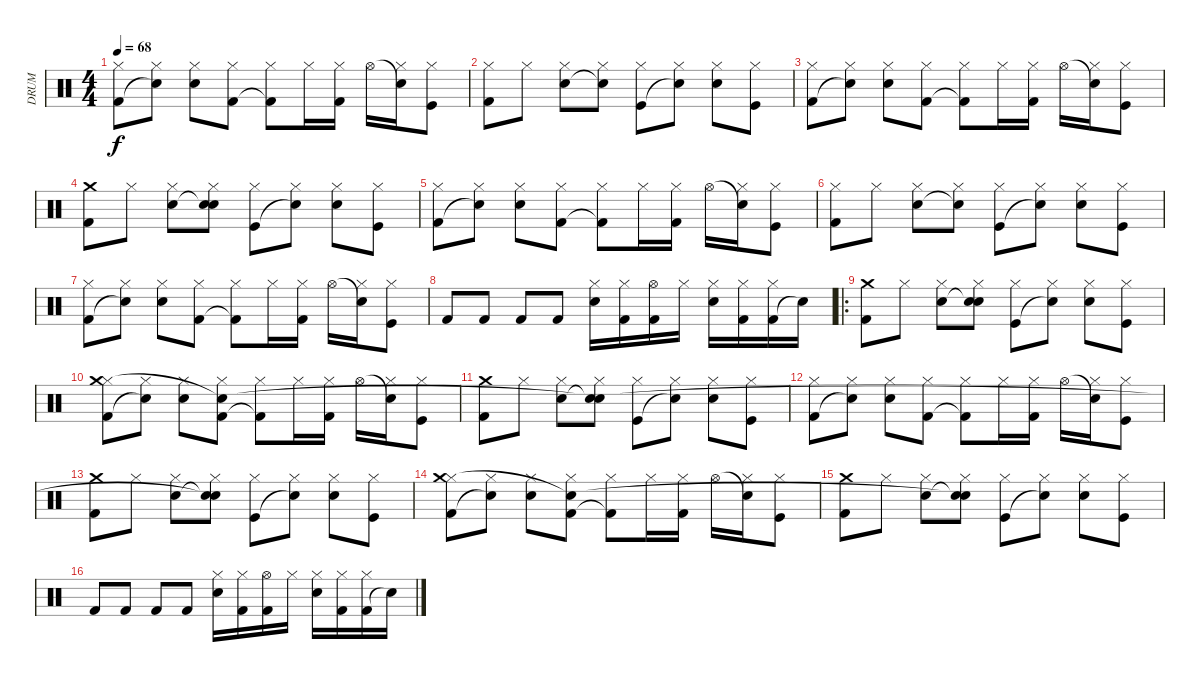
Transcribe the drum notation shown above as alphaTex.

\track ("DRUM" "DRUM") {instrument percussion}
\staff {score}
\articulation defaults
\ts (4 4)
\tempo 68
\clef neutral
\ks c
("Kick (hit) 2" "Hi-Hat (closed)").8{dy f} ("Snare (hit)"{t} "Hi-Hat (closed)").8 ("Snare (hit) 2" "Hi-Hat (closed)").8 ("Kick (hit) 2" "Hi-Hat (closed)").8 ("Kick (hit) 2"{t} "Hi-Hat (closed)").8 "Hi-Hat (closed)".16 ("Kick (hit) 2" "Hi-Hat (closed)").16 "Hi-Hat (open)".16 ("Snare (hit)"{t} "Hi-Hat (closed)").16 ("Kick (hit)" "Hi-Hat (closed)").8 |
("Kick (hit) 2" "Hi-Hat (closed)").8 "Hi-Hat (closed)".8 ("Snare (hit) 2" "Hi-Hat (closed)").8 ("Snare (hit)"{t} "Hi-Hat (closed)").8 ("Kick (hit)" "Hi-Hat (closed)").8 ("Snare (hit)"{t} "Hi-Hat (closed)").8 ("Snare (hit) 2" "Hi-Hat (closed)").8 ("Kick (hit)" "Hi-Hat (closed)").8 |
("Kick (hit) 2" "Hi-Hat (closed)").8 ("Snare (hit)"{t} "Hi-Hat (closed)").8 ("Snare (hit) 2" "Hi-Hat (closed)").8 ("Kick (hit) 2" "Hi-Hat (closed)").8 ("Kick (hit) 2"{t} "Hi-Hat (closed)").8 "Hi-Hat (closed)".16 ("Kick (hit) 2" "Hi-Hat (closed)").16 "Hi-Hat (open)".16 ("Snare (hit)"{t} "Hi-Hat (closed)").16 ("Kick (hit)" "Hi-Hat (closed)").8 |
("Kick (hit) 2" "Crash medium (hit)").8 "Hi-Hat (closed)".8 ("Snare (hit) 2" "Hi-Hat (closed)").8 ("Snare (hit)"{t} "Hi-Hat (closed)" "Snare (hit)").8 ("Kick (hit)" "Hi-Hat (closed)").8 ("Snare (hit)"{t} "Hi-Hat (closed)").8 ("Snare (hit) 2" "Hi-Hat (closed)").8 ("Kick (hit)" "Hi-Hat (closed)").8 |
("Kick (hit) 2" "Hi-Hat (closed)").8 ("Snare (hit)"{t} "Hi-Hat (closed)").8 ("Snare (hit) 2" "Hi-Hat (closed)").8 ("Kick (hit) 2" "Hi-Hat (closed)").8 ("Kick (hit) 2"{t} "Hi-Hat (closed)").8 "Hi-Hat (closed)".16 ("Kick (hit) 2" "Hi-Hat (closed)").16 "Hi-Hat (open)".16 ("Snare (hit)"{t} "Hi-Hat (closed)").16 ("Kick (hit)" "Hi-Hat (closed)").8 |
("Kick (hit) 2" "Hi-Hat (closed)").8 "Hi-Hat (closed)".8 ("Snare (hit) 2" "Hi-Hat (closed)").8 ("Snare (hit)"{t} "Hi-Hat (closed)").8 ("Kick (hit)" "Hi-Hat (closed)").8 ("Snare (hit)"{t} "Hi-Hat (closed)").8 ("Snare (hit) 2" "Hi-Hat (closed)").8 ("Kick (hit)" "Hi-Hat (closed)").8 |
("Kick (hit) 2" "Hi-Hat (closed)").8 ("Snare (hit)"{t} "Hi-Hat (closed)").8 ("Snare (hit) 2" "Hi-Hat (closed)").8 ("Kick (hit) 2" "Hi-Hat (closed)").8 ("Kick (hit) 2"{t} "Hi-Hat (closed)").8 "Hi-Hat (closed)".16 ("Kick (hit) 2" "Hi-Hat (closed)").16 "Hi-Hat (open)".16 ("Snare (hit)"{t} "Hi-Hat (closed)").16 ("Kick (hit)" "Hi-Hat (closed)").8 |
"Kick (hit) 2".8 "Kick (hit) 2".8 "Kick (hit) 2".8 "Kick (hit) 2".8 ("Snare (hit) 2" "Hi-Hat (closed)").16 ("Kick (hit) 2" "Hi-Hat (closed)").16 ("Kick (hit) 2" "Hi-Hat (open)").16 "Hi-Hat (closed)".16 ("Snare (hit) 2" "Hi-Hat (closed)").16 ("Kick (hit) 2" "Hi-Hat (closed)").16 ("Kick (hit) 2" "Hi-Hat (closed)").16 "Snare (hit)"{t}.16 |
\ro
("Kick (hit) 2" "Crash medium (hit)").8 "Hi-Hat (closed)".8 ("Snare (hit) 2" "Hi-Hat (closed)").8 ("Snare (hit)"{t} "Hi-Hat (closed)" "Snare (hit)").8 ("Kick (hit)" "Hi-Hat (closed)").8 ("Snare (hit)"{t} "Hi-Hat (closed)").8 ("Snare (hit) 2" "Hi-Hat (closed)").8 ("Kick (hit)" "Hi-Hat (closed)").8 |
("Kick (hit) 2" "Hi-Hat (closed)" "Crash medium (hit)").8 ("Snare (hit)"{t} "Hi-Hat (closed)").8 ("Snare (hit) 2" "Hi-Hat (closed)").8 ("Kick (hit) 2" "Hi-Hat (closed)" "Snare (hit)"{t}).8 ("Kick (hit) 2"{t} "Hi-Hat (closed)").8 "Hi-Hat (closed)".16 ("Kick (hit) 2" "Hi-Hat (closed)").16 "Hi-Hat (open)".16 ("Snare (hit)"{t} "Hi-Hat (closed)").16 ("Kick (hit)" "Hi-Hat (closed)").8 |
("Kick (hit) 2" "Crash medium (hit)").8 "Hi-Hat (closed)".8 ("Snare (hit) 2" "Hi-Hat (closed)").8 ("Snare (hit)"{t} "Hi-Hat (closed)" "Snare (hit)"{t}).8 ("Kick (hit)" "Hi-Hat (closed)").8 ("Snare (hit)"{t} "Hi-Hat (closed)").8 ("Snare (hit) 2" "Hi-Hat (closed)").8 ("Kick (hit)" "Hi-Hat (closed)").8 |
("Kick (hit) 2" "Hi-Hat (closed)").8 ("Snare (hit)"{t} "Hi-Hat (closed)").8 ("Snare (hit) 2" "Hi-Hat (closed)").8 ("Kick (hit) 2" "Hi-Hat (closed)").8 ("Kick (hit) 2"{t} "Hi-Hat (closed)").8 "Hi-Hat (closed)".16 ("Kick (hit) 2" "Hi-Hat (closed)").16 "Hi-Hat (open)".16 ("Snare (hit)"{t} "Hi-Hat (closed)").16 ("Kick (hit)" "Hi-Hat (closed)").8 |
("Kick (hit) 2" "Crash medium (hit)").8 "Hi-Hat (closed)".8 ("Snare (hit) 2" "Hi-Hat (closed)").8 ("Snare (hit)"{t} "Hi-Hat (closed)" "Snare (hit)"{t}).8 ("Kick (hit)" "Hi-Hat (closed)").8 ("Snare (hit)"{t} "Hi-Hat (closed)").8 ("Snare (hit) 2" "Hi-Hat (closed)").8 ("Kick (hit)" "Hi-Hat (closed)").8 |
("Kick (hit) 2" "Hi-Hat (closed)" "Crash medium (hit)").8 ("Snare (hit)"{t} "Hi-Hat (closed)").8 ("Snare (hit) 2" "Hi-Hat (closed)").8 ("Kick (hit) 2" "Hi-Hat (closed)" "Snare (hit)"{t}).8 ("Kick (hit) 2"{t} "Hi-Hat (closed)").8 "Hi-Hat (closed)".16 ("Kick (hit) 2" "Hi-Hat (closed)").16 "Hi-Hat (open)".16 ("Snare (hit)"{t} "Hi-Hat (closed)").16 ("Kick (hit)" "Hi-Hat (closed)").8 |
("Kick (hit) 2" "Crash medium (hit)").8 "Hi-Hat (closed)".8 ("Snare (hit) 2" "Hi-Hat (closed)").8 ("Snare (hit)"{t} "Hi-Hat (closed)" "Snare (hit)"{t}).8 ("Kick (hit)" "Hi-Hat (closed)").8 ("Snare (hit)"{t} "Hi-Hat (closed)").8 ("Snare (hit) 2" "Hi-Hat (closed)").8 ("Kick (hit)" "Hi-Hat (closed)").8 |
"Kick (hit) 2".8 "Kick (hit) 2".8 "Kick (hit) 2".8 "Kick (hit) 2".8 ("Snare (hit) 2" "Hi-Hat (closed)").16 ("Kick (hit) 2" "Hi-Hat (closed)").16 ("Kick (hit) 2" "Hi-Hat (open)").16 "Hi-Hat (closed)".16 ("Snare (hit) 2" "Hi-Hat (closed)").16 ("Kick (hit) 2" "Hi-Hat (closed)").16 ("Kick (hit) 2" "Hi-Hat (closed)").16 "Snare (hit)"{t}.16
